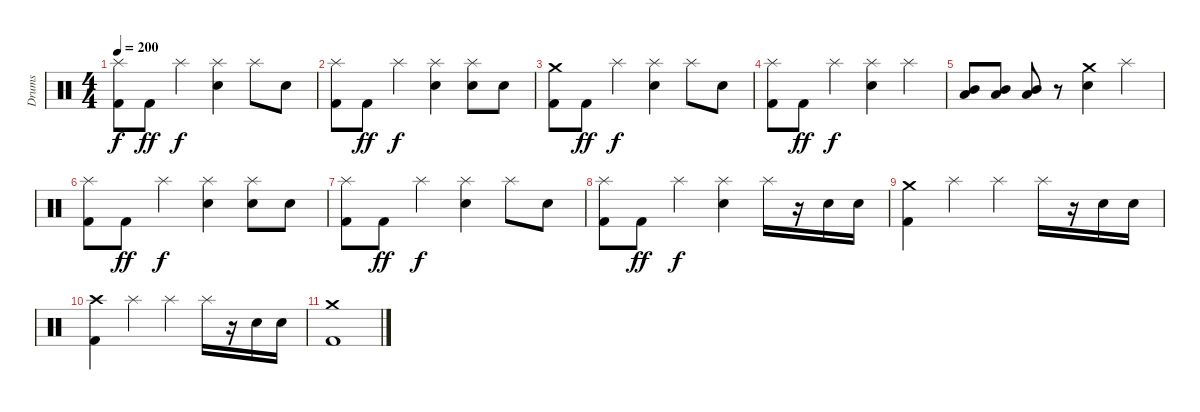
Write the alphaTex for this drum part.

\track ("Drums" "Drums") {instrument percussion}
\staff {score}
\articulation defaults
\ts (4 4)
\tempo 200
\clef neutral
\ks c
("Splash (hit)" "Kick (hit) 2").8{dy f} "Kick (hit) 2".8{dy ff} "Splash (hit)".4{dy f} ("Splash (hit)" "Snare (hit) 2").4 "Splash (hit)".8 "Snare (hit) 2".8 |
("Splash (hit)" "Kick (hit) 2").8 "Kick (hit) 2".8{dy ff} "Splash (hit)".4{dy f} ("Splash (hit)" "Snare (hit) 2").4 ("Splash (hit)" "Snare (hit) 2").8 "Snare (hit) 2".8 |
("Crash medium (hit)" "Kick (hit) 2").8 "Kick (hit) 2".8{dy ff} "Splash (hit)".4{dy f} ("Splash (hit)" "Snare (hit) 2").4 "Splash (hit)".8 "Snare (hit) 2".8 |
("Splash (hit)" "Kick (hit) 2").8 "Kick (hit) 2".8{dy ff} "Splash (hit)".4{dy f} ("Splash (hit)" "Snare (hit) 2").4 "Splash (hit)".4 |
("Mid Tom (hit)" "Low Tom (hit)").8 ("Mid Tom (hit)" "Low Tom (hit)").8 ("Mid Tom (hit)" "Low Tom (hit)").8 r.8 ("Crash medium (hit)" "Snare (hit) 2").4 "Splash (hit)".4 |
("Splash (hit)" "Kick (hit) 2").8 "Kick (hit) 2".8{dy ff} "Splash (hit)".4{dy f} ("Splash (hit)" "Snare (hit) 2").4 ("Splash (hit)" "Snare (hit) 2").8 "Snare (hit) 2".8 |
("Splash (hit)" "Kick (hit) 2").8 "Kick (hit) 2".8{dy ff} "Splash (hit)".4{dy f} ("Splash (hit)" "Snare (hit) 2").4 "Splash (hit)".8 "Snare (hit) 2".8 |
("Splash (hit)" "Kick (hit) 2").8 "Kick (hit) 2".8{dy ff} "Splash (hit)".4{dy f} ("Splash (hit)" "Snare (hit) 2").4 "Splash (hit)".16 r.16 "Snare (hit) 2".16 "Snare (hit) 2".16 |
("Crash medium (hit)" "Kick (hit) 2").4 "Splash (hit)".4 "Splash (hit)".4 "Splash (hit)".16 r.16 "Snare (hit) 2".16 "Snare (hit) 2".16 |
("Crash high (hit)" "Kick (hit) 2").4 "Splash (hit)".4 "Splash (hit)".4 "Splash (hit)".16 r.16 "Snare (hit) 2".16 "Snare (hit) 2".16 |
("Crash medium (hit)" "Kick (hit) 2").1
